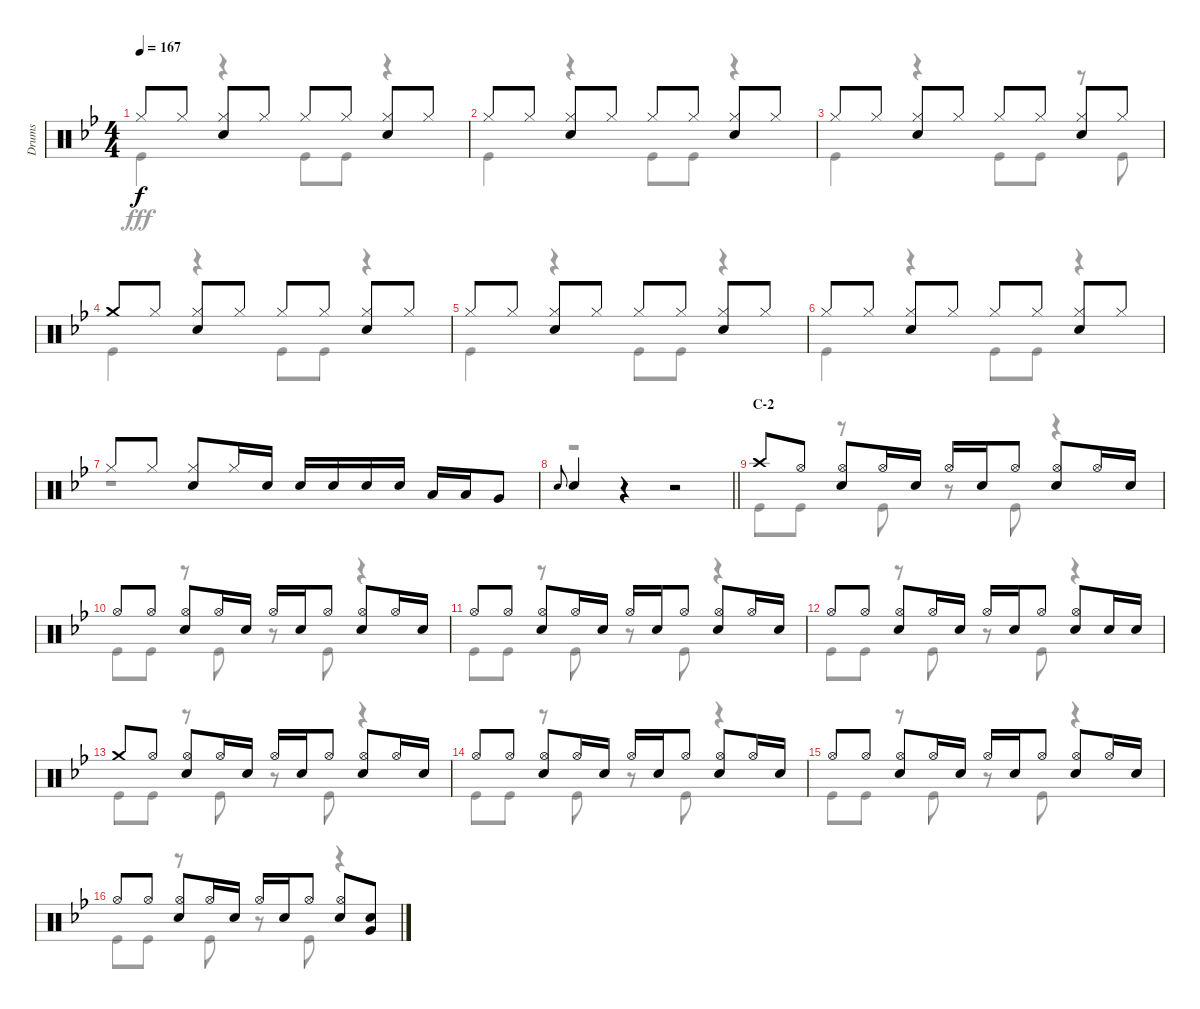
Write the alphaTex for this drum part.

\track ("Drums" "Drums") {instrument percussion}
\staff {score}
\articulation defaults
\voice
\ts (4 4)
\tempo 167
\clef neutral
\ks bb "Hi-Hat (closed)".8{dy f} "Hi-Hat (closed)".8
("Hi-Hat (closed)" "Snare (hit) 2").8 "Hi-Hat (closed)".8 "Hi-Hat (closed)".8 "Hi-Hat (closed)".8 ("Hi-Hat (closed)" "Snare (hit) 2").8 "Hi-Hat (closed)".8 |
"Hi-Hat (closed)".8 "Hi-Hat (closed)".8 ("Hi-Hat (closed)" "Snare (hit) 2").8 "Hi-Hat (closed)".8 "Hi-Hat (closed)".8 "Hi-Hat (closed)".8 ("Hi-Hat (closed)" "Snare (hit) 2").8 "Hi-Hat (closed)".8 |
"Hi-Hat (closed)".8 "Hi-Hat (closed)".8 ("Hi-Hat (closed)" "Snare (hit) 2").8 "Hi-Hat (closed)".8 "Hi-Hat (closed)".8 "Hi-Hat (closed)".8 ("Hi-Hat (closed)" "Snare (hit) 2").8 "Hi-Hat (closed)".8 |
"Crash medium (hit)".8 "Hi-Hat (closed)".8 ("Hi-Hat (closed)" "Snare (hit) 2").8 "Hi-Hat (closed)".8 "Hi-Hat (closed)".8 "Hi-Hat (closed)".8 ("Hi-Hat (closed)" "Snare (hit) 2").8 "Hi-Hat (closed)".8 |
"Hi-Hat (closed)".8 "Hi-Hat (closed)".8 ("Hi-Hat (closed)" "Snare (hit) 2").8 "Hi-Hat (closed)".8 "Hi-Hat (closed)".8 "Hi-Hat (closed)".8 ("Hi-Hat (closed)" "Snare (hit) 2").8 "Hi-Hat (closed)".8 |
"Hi-Hat (closed)".8 "Hi-Hat (closed)".8 ("Hi-Hat (closed)" "Snare (hit) 2").8 "Hi-Hat (closed)".8 "Hi-Hat (closed)".8 "Hi-Hat (closed)".8 ("Hi-Hat (closed)" "Snare (hit) 2").8 "Hi-Hat (closed)".8 |
"Hi-Hat (closed)".8 "Hi-Hat (closed)".8 ("Hi-Hat (closed)" "Snare (hit) 2").8 "Hi-Hat (closed)".16 "Snare (hit) 2".16 "Snare (hit) 2".16 "Snare (hit) 2".16 "Snare (hit) 2".16 "Snare (hit) 2".16 "Low Tom (hit)".16 "Low Tom (hit)".16 "Very Low Tom (hit)".8 |
\barLineRight lightlight "Snare (hit) 2".8{gr onbeat} "Snare (hit) 2".4
r.4 r.2 |
\section ("" "C-2")
"Crash high (hit)".8 "Hi-Hat (open)".8 ("Hi-Hat (open)" "Snare (hit) 2").8 "Hi-Hat (open)".16 "Snare (hit) 2".16 "Hi-Hat (open)".16 "Snare (hit) 2".16 "Hi-Hat (open)".8 ("Hi-Hat (open)" "Snare (hit) 2").8 "Hi-Hat (open)".16 "Snare (hit) 2".16 |
"Hi-Hat (open)".8 "Hi-Hat (open)".8 ("Hi-Hat (open)" "Snare (hit) 2").8 "Hi-Hat (open)".16 "Snare (hit) 2".16 "Hi-Hat (open)".16 "Snare (hit) 2".16 "Hi-Hat (open)".8 ("Hi-Hat (open)" "Snare (hit) 2").8 "Hi-Hat (open)".16 "Snare (hit) 2".16 |
"Hi-Hat (open)".8 "Hi-Hat (open)".8 ("Hi-Hat (open)" "Snare (hit) 2").8 "Hi-Hat (open)".16 "Snare (hit) 2".16 "Hi-Hat (open)".16 "Snare (hit) 2".16 "Hi-Hat (open)".8 ("Hi-Hat (open)" "Snare (hit) 2").8 "Hi-Hat (open)".16 "Snare (hit) 2".16 |
"Hi-Hat (open)".8 "Hi-Hat (open)".8 ("Hi-Hat (open)" "Snare (hit) 2").8 "Hi-Hat (open)".16 "Snare (hit) 2".16 "Hi-Hat (open)".16 "Snare (hit) 2".16 "Hi-Hat (open)".8 ("Hi-Hat (open)" "Snare (hit) 2").8 "Snare (hit) 2".16 "Snare (hit) 2".16 |
"Crash medium (hit)".8 "Hi-Hat (open)".8 ("Hi-Hat (open)" "Snare (hit) 2").8 "Hi-Hat (open)".16 "Snare (hit) 2".16 "Hi-Hat (open)".16 "Snare (hit) 2".16 "Hi-Hat (open)".8 ("Hi-Hat (open)" "Snare (hit) 2").8 "Hi-Hat (open)".16 "Snare (hit) 2".16 |
"Hi-Hat (open)".8 "Hi-Hat (open)".8 ("Hi-Hat (open)" "Snare (hit) 2").8 "Hi-Hat (open)".16 "Snare (hit) 2".16 "Hi-Hat (open)".16 "Snare (hit) 2".16 "Hi-Hat (open)".8 ("Hi-Hat (open)" "Snare (hit) 2").8 "Hi-Hat (open)".16 "Snare (hit) 2".16 |
"Hi-Hat (open)".8 "Hi-Hat (open)".8 ("Hi-Hat (open)" "Snare (hit) 2").8 "Hi-Hat (open)".16 "Snare (hit) 2".16 "Hi-Hat (open)".16 "Snare (hit) 2".16 "Hi-Hat (open)".8 ("Hi-Hat (open)" "Snare (hit) 2").8 "Hi-Hat (open)".16 "Snare (hit) 2".16 |
"Hi-Hat (open)".8 "Hi-Hat (open)".8 ("Hi-Hat (open)" "Snare (hit) 2").8 "Hi-Hat (open)".16 "Snare (hit) 2".16 "Hi-Hat (open)".16 "Snare (hit) 2".16 "Hi-Hat (open)".8 ("Hi-Hat (open)" "Snare (hit) 2").8 ("Snare (hit) 2" "Very Low Tom (hit)").8
\voice
\clef neutral
\ottava regular
\simile none
\ks bb "Kick (hit)".4{dy fff}
r.4 "Kick (hit)".8 "Kick (hit)".8 r.4 |
"Kick (hit)".4 r.4 "Kick (hit)".8 "Kick (hit)".8 r.4 |
"Kick (hit)".4 r.4 "Kick (hit)".8 "Kick (hit)".8 r.8 "Kick (hit)".8 |
"Kick (hit)".4 r.4 "Kick (hit)".8 "Kick (hit)".8 r.4 |
"Kick (hit)".4 r.4 "Kick (hit)".8 "Kick (hit)".8 r.4 |
"Kick (hit)".4 r.4 "Kick (hit)".8 "Kick (hit)".8 r.4 |
r.1 |
\barLineRight lightlight
r.1 |
"Kick (hit)".8 "Kick (hit)".8 r.8 "Kick (hit)".8 r.8 "Kick (hit)".8 r.4 |
"Kick (hit)".8 "Kick (hit)".8 r.8 "Kick (hit)".8 r.8 "Kick (hit)".8 r.4 |
"Kick (hit)".8 "Kick (hit)".8 r.8 "Kick (hit)".8 r.8 "Kick (hit)".8 r.4 |
"Kick (hit)".8 "Kick (hit)".8 r.8 "Kick (hit)".8 r.8 "Kick (hit)".8 r.4 |
"Kick (hit)".8 "Kick (hit)".8 r.8 "Kick (hit)".8 r.8 "Kick (hit)".8 r.4 |
"Kick (hit)".8 "Kick (hit)".8 r.8 "Kick (hit)".8 r.8 "Kick (hit)".8 r.4 |
"Kick (hit)".8 "Kick (hit)".8 r.8 "Kick (hit)".8 r.8 "Kick (hit)".8 r.4 |
"Kick (hit)".8 "Kick (hit)".8 r.8 "Kick (hit)".8 r.8 "Kick (hit)".8 r.4
